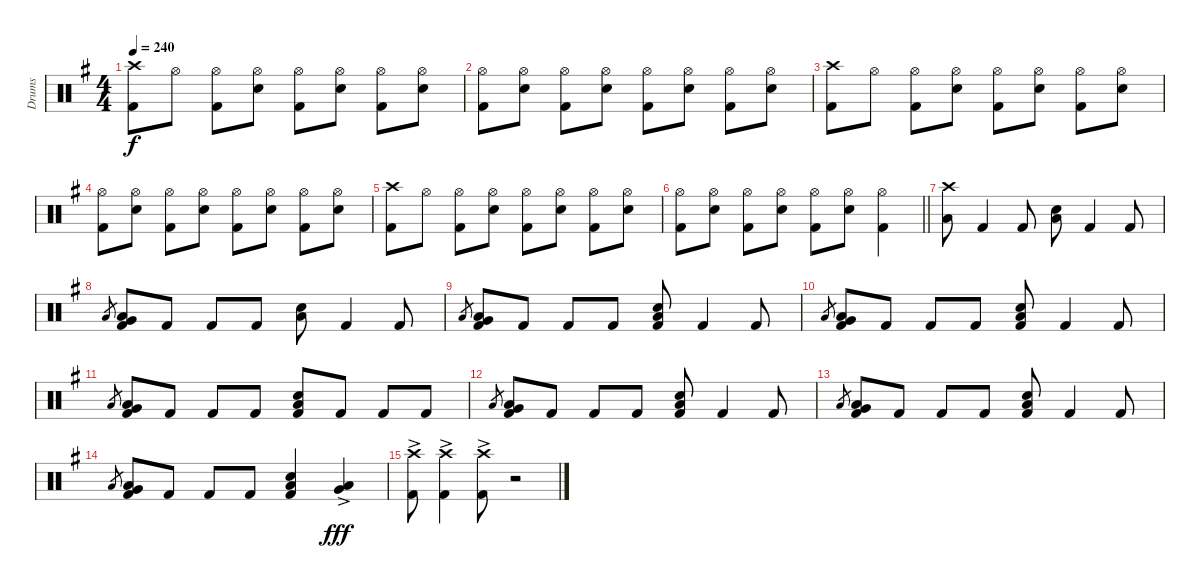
\track ("Drums" "Drums") {instrument percussion}
\staff {score}
\articulation defaults
\ts (4 4)
\tempo 240
\clef neutral
\ks eminor
("Crash high (hit)" "Kick (hit) 2").8{dy f} "Hi-Hat (open)".8 ("Hi-Hat (open)" "Kick (hit) 2").8 ("Hi-Hat (open)" "Snare (hit) 2").8 ("Hi-Hat (open)" "Kick (hit) 2").8 ("Hi-Hat (open)" "Snare (hit) 2").8 ("Hi-Hat (open)" "Kick (hit) 2").8 ("Hi-Hat (open)" "Snare (hit) 2").8 |
("Hi-Hat (open)" "Kick (hit) 2").8 ("Hi-Hat (open)" "Snare (hit) 2").8 ("Hi-Hat (open)" "Kick (hit) 2").8 ("Hi-Hat (open)" "Snare (hit) 2").8 ("Hi-Hat (open)" "Kick (hit) 2").8 ("Hi-Hat (open)" "Snare (hit) 2").8 ("Hi-Hat (open)" "Kick (hit) 2").8 ("Hi-Hat (open)" "Snare (hit) 2").8 |
("Crash high (hit)" "Kick (hit) 2").8 "Hi-Hat (open)".8 ("Hi-Hat (open)" "Kick (hit) 2").8 ("Hi-Hat (open)" "Snare (hit) 2").8 ("Hi-Hat (open)" "Kick (hit) 2").8 ("Hi-Hat (open)" "Snare (hit) 2").8 ("Hi-Hat (open)" "Kick (hit) 2").8 ("Hi-Hat (open)" "Snare (hit) 2").8 |
("Hi-Hat (open)" "Kick (hit) 2").8 ("Hi-Hat (open)" "Snare (hit) 2").8 ("Hi-Hat (open)" "Kick (hit) 2").8 ("Hi-Hat (open)" "Snare (hit) 2").8 ("Hi-Hat (open)" "Kick (hit) 2").8 ("Hi-Hat (open)" "Snare (hit) 2").8 ("Hi-Hat (open)" "Kick (hit) 2").8 ("Hi-Hat (open)" "Snare (hit) 2").8 |
("Crash high (hit)" "Kick (hit) 2").8 "Hi-Hat (open)".8 ("Hi-Hat (open)" "Kick (hit) 2").8 ("Hi-Hat (open)" "Snare (hit) 2").8 ("Hi-Hat (open)" "Kick (hit) 2").8 ("Hi-Hat (open)" "Snare (hit) 2").8 ("Hi-Hat (open)" "Kick (hit) 2").8 ("Hi-Hat (open)" "Snare (hit) 2").8 |
\barLineRight lightlight
("Hi-Hat (open)" "Kick (hit) 2").8 ("Hi-Hat (open)" "Snare (hit) 2").8 ("Hi-Hat (open)" "Kick (hit) 2").8 ("Hi-Hat (open)" "Snare (hit) 2").8 ("Hi-Hat (open)" "Kick (hit) 2").8 ("Hi-Hat (open)" "Snare (hit) 2").8 ("Hi-Hat (open)" "Kick (hit) 2").4 |
("Crash high (hit)" "Low Tom (hit)").8 "Kick (hit) 2".4 "Kick (hit) 2".8 ("Snare (hit) 2" "Low Tom (hit)").8 "Kick (hit) 2".4 "Kick (hit) 2".8 |
"Low Tom (hit)".8{gr} ("Low Tom (hit)" "Very Low Tom (hit)" "Kick (hit) 2").8 "Kick (hit) 2".8 "Kick (hit) 2".8 "Kick (hit) 2".8 ("Snare (hit) 2" "Low Tom (hit)").8 "Kick (hit) 2".4 "Kick (hit) 2".8 |
"Low Tom (hit)".8{gr} ("Low Tom (hit)" "Very Low Tom (hit)" "Kick (hit) 2").8 "Kick (hit) 2".8 "Kick (hit) 2".8 "Kick (hit) 2".8 ("Snare (hit) 2" "Low Tom (hit)" "Kick (hit) 2").8 "Kick (hit) 2".4 "Kick (hit) 2".8 |
"Low Tom (hit)".8{gr} ("Low Tom (hit)" "Very Low Tom (hit)" "Kick (hit) 2").8 "Kick (hit) 2".8 "Kick (hit) 2".8 "Kick (hit) 2".8 ("Snare (hit) 2" "Low Tom (hit)" "Kick (hit) 2").8 "Kick (hit) 2".4 "Kick (hit) 2".8 |
"Low Tom (hit)".8{gr} ("Low Tom (hit)" "Very Low Tom (hit)" "Kick (hit) 2").8 "Kick (hit) 2".8 "Kick (hit) 2".8 "Kick (hit) 2".8 ("Snare (hit) 2" "Low Tom (hit)" "Kick (hit) 2").8 "Kick (hit) 2".8 "Kick (hit) 2".8 "Kick (hit) 2".8 |
"Low Tom (hit)".8{gr} ("Low Tom (hit)" "Very Low Tom (hit)" "Kick (hit) 2").8 "Kick (hit) 2".8 "Kick (hit) 2".8 "Kick (hit) 2".8 ("Snare (hit) 2" "Low Tom (hit)" "Kick (hit) 2").8 "Kick (hit) 2".4 "Kick (hit) 2".8 |
"Low Tom (hit)".8{gr} ("Low Tom (hit)" "Very Low Tom (hit)" "Kick (hit) 2").8 "Kick (hit) 2".8 "Kick (hit) 2".8 "Kick (hit) 2".8 ("Snare (hit) 2" "Low Tom (hit)" "Kick (hit) 2").8 "Kick (hit) 2".4 "Kick (hit) 2".8 |
"Low Tom (hit)".8{gr} ("Low Tom (hit)" "Very Low Tom (hit)" "Kick (hit) 2").8 "Kick (hit) 2".8 "Kick (hit) 2".8 "Kick (hit) 2".8 ("Snare (hit) 2" "Low Tom (hit)" "Kick (hit) 2").4 ("Low Tom (hit)" "Very Low Tom (hit)"{ac}).4{dy fff} |
("Crash high (hit)" "Kick (hit) 2"{ac}).8 ("Crash high (hit)" "Kick (hit) 2"{ac}).4 ("Crash high (hit)" "Kick (hit) 2"{ac}).8 r.2{volume 0}
